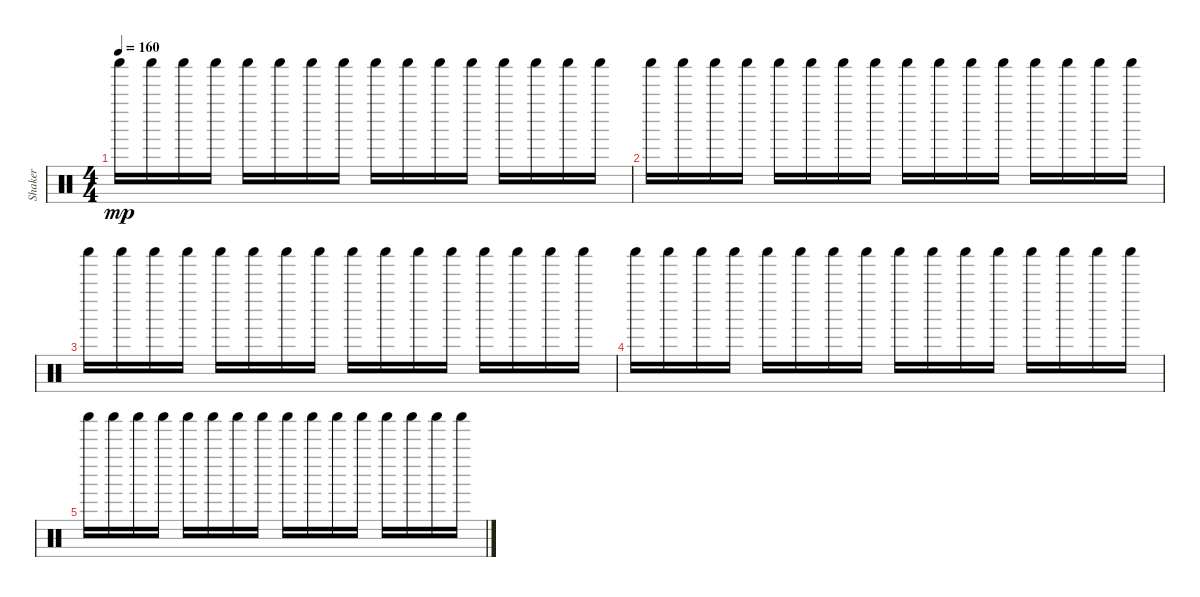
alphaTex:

\track ("Shaker" "Shaker") {instrument percussion}
\staff {score}
\articulation defaults
\ts (4 4)
\tempo 160
\clef neutral
\ks c "Shaker (hit)".16{dy mp} "Shaker (hit)".16 "Shaker (hit)".16 "Shaker (hit)".16 "Shaker (hit)".16 "Shaker (hit)".16 "Shaker (hit)".16 "Shaker (hit)".16 "Shaker (hit)".16 "Shaker (hit)".16 "Shaker (hit)".16 "Shaker (hit)".16 "Shaker (hit)".16 "Shaker (hit)".16 "Shaker (hit)".16 "Shaker (hit)".16
|
"Shaker (hit)".16 "Shaker (hit)".16 "Shaker (hit)".16 "Shaker (hit)".16 "Shaker (hit)".16 "Shaker (hit)".16 "Shaker (hit)".16 "Shaker (hit)".16 "Shaker (hit)".16 "Shaker (hit)".16 "Shaker (hit)".16 "Shaker (hit)".16 "Shaker (hit)".16 "Shaker (hit)".16 "Shaker (hit)".16 "Shaker (hit)".16 |
"Shaker (hit)".16 "Shaker (hit)".16 "Shaker (hit)".16 "Shaker (hit)".16 "Shaker (hit)".16 "Shaker (hit)".16 "Shaker (hit)".16 "Shaker (hit)".16 "Shaker (hit)".16 "Shaker (hit)".16 "Shaker (hit)".16 "Shaker (hit)".16 "Shaker (hit)".16 "Shaker (hit)".16 "Shaker (hit)".16 "Shaker (hit)".16 |
"Shaker (hit)".16 "Shaker (hit)".16 "Shaker (hit)".16 "Shaker (hit)".16 "Shaker (hit)".16 "Shaker (hit)".16 "Shaker (hit)".16 "Shaker (hit)".16 "Shaker (hit)".16 "Shaker (hit)".16 "Shaker (hit)".16 "Shaker (hit)".16 "Shaker (hit)".16 "Shaker (hit)".16 "Shaker (hit)".16 "Shaker (hit)".16 |
"Shaker (hit)".16 "Shaker (hit)".16 "Shaker (hit)".16 "Shaker (hit)".16 "Shaker (hit)".16 "Shaker (hit)".16 "Shaker (hit)".16 "Shaker (hit)".16 "Shaker (hit)".16 "Shaker (hit)".16 "Shaker (hit)".16 "Shaker (hit)".16 "Shaker (hit)".16 "Shaker (hit)".16 "Shaker (hit)".16 "Shaker (hit)".16
